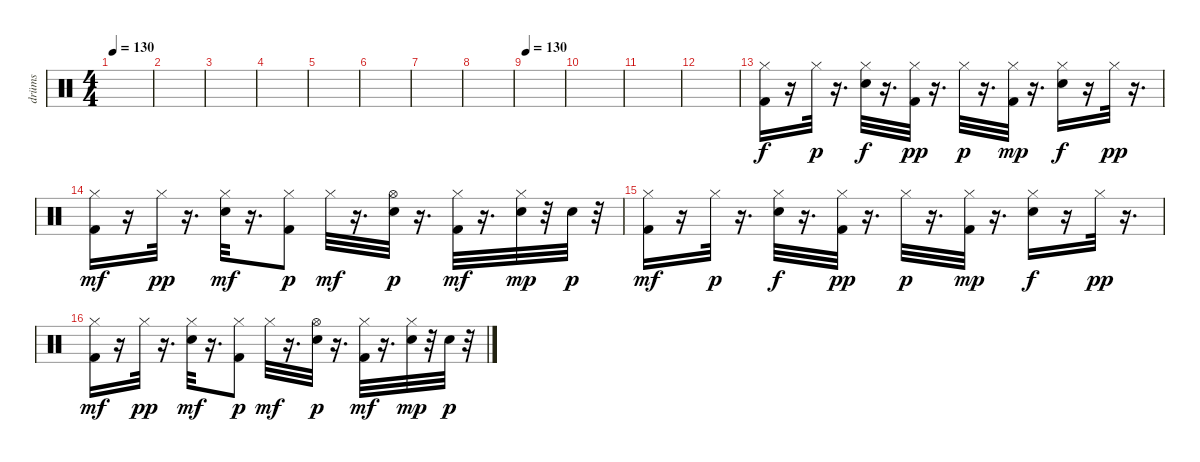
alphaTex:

\track ("drüms" "drüms") {instrument percussion}
\staff {score}
\articulation defaults
\ts (4 4)
\tempo 130
\clef neutral
\ks c
|
|
|
|
|
|
|
|
\tempo 130
|
|
|
|
("Kick (hit) 2" "Hi-Hat (closed)").16 r.16 "Hi-Hat (closed)".32{dy p} r.16{d} ("Electric Snare (hit)" "Hi-Hat (closed)").32{dy f} r.16{d} ("Kick (hit) 2" "Hi-Hat (closed)").32{dy pp} r.16{d} "Hi-Hat (closed)".32{dy p} r.16{d} ("Kick (hit) 2" "Hi-Hat (closed)").32{dy mp} r.16{d} ("Electric Snare (hit)" "Hi-Hat (closed)").16{dy f} r.16 "Hi-Hat (closed)".32{dy pp} r.16{d} |
("Kick (hit) 2" "Hi-Hat (closed)").16{dy mf} r.16 "Hi-Hat (closed)".32{dy pp} r.16{d} ("Electric Snare (hit)" "Hi-Hat (closed)").32{dy mf} r.16{d} ("Kick (hit) 2" "Hi-Hat (closed)").8{dy p} "Hi-Hat (closed)".32{dy mf} r.16{d} ("Electric Snare (hit)" "Hi-Hat (open)").32{dy p} r.16{d} ("Kick (hit) 2" "Hi-Hat (closed)").32{dy mf} r.16{d} ("Electric Snare (hit)" "Hi-Hat (closed)").32{dy mp} r.32 "Electric Snare (hit)".32{dy p} r.32 |
("Kick (hit) 2" "Hi-Hat (closed)").16{dy mf} r.16 "Hi-Hat (closed)".32{dy p} r.16{d} ("Electric Snare (hit)" "Hi-Hat (closed)").32{dy f} r.16{d} ("Kick (hit) 2" "Hi-Hat (closed)").32{dy pp} r.16{d} "Hi-Hat (closed)".32{dy p} r.16{d} ("Kick (hit) 2" "Hi-Hat (closed)").32{dy mp} r.16{d} ("Electric Snare (hit)" "Hi-Hat (closed)").16{dy f} r.16 "Hi-Hat (closed)".32{dy pp} r.16{d} |
("Kick (hit) 2" "Hi-Hat (closed)").16{dy mf} r.16 "Hi-Hat (closed)".32{dy pp} r.16{d} ("Electric Snare (hit)" "Hi-Hat (closed)").32{dy mf} r.16{d} ("Kick (hit) 2" "Hi-Hat (closed)").8{dy p} "Hi-Hat (closed)".32{dy mf} r.16{d} ("Electric Snare (hit)" "Hi-Hat (open)").32{dy p} r.16{d} ("Kick (hit) 2" "Hi-Hat (closed)").32{dy mf} r.16{d} ("Electric Snare (hit)" "Hi-Hat (closed)").32{dy mp} r.32 "Electric Snare (hit)".32{dy p} r.32
